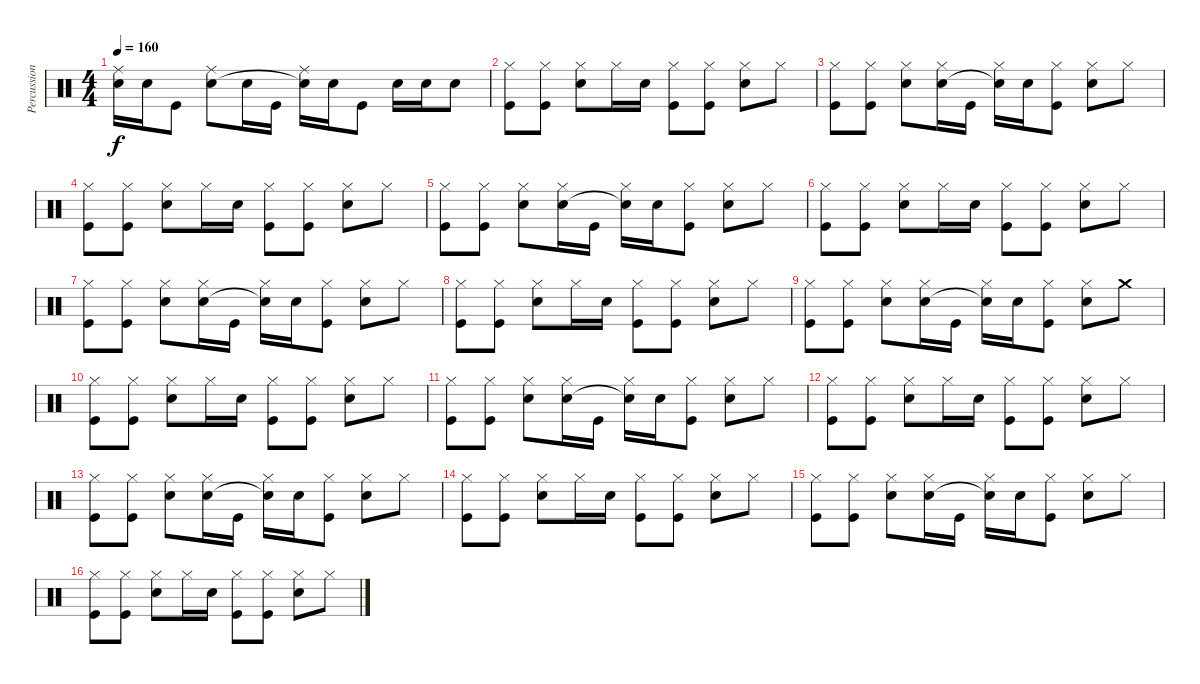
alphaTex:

\track ("Percussion" "Percussion") {instrument percussion}
\staff {score}
\articulation defaults
\ts (4 4)
\tempo 160
\clef neutral
\ks c
("Ride (middle)" "Snare (hit)"{t}).16{dy f} "Snare (hit) 2".16 "Kick (hit)".8 ("Ride (middle)" "Snare (hit) 2").8 "Snare (hit) 2".16 "Kick (hit)".16 ("Ride (middle)" "Snare (hit)"{t}).16 "Snare (hit) 2".16 "Kick (hit)".8 "Snare (hit) 2".16 "Snare (hit) 2".16 "Snare (hit) 2".8 |
("Hi-Hat (closed)" "Kick (hit)").8 ("Hi-Hat (closed)" "Kick (hit)").8 ("Hi-Hat (closed)" "Snare (hit) 2").8 "Hi-Hat (closed)".16 "Snare (hit) 2".16 ("Hi-Hat (closed)" "Kick (hit)").8 ("Hi-Hat (closed)" "Kick (hit)").8 ("Hi-Hat (closed)" "Snare (hit) 2").8 "Hi-Hat (closed)".8 |
("Hi-Hat (closed)" "Kick (hit)").8 ("Hi-Hat (closed)" "Kick (hit)").8 ("Hi-Hat (closed)" "Snare (hit) 2").8 ("Hi-Hat (closed)" "Snare (hit) 2").16 "Kick (hit)".16 ("Hi-Hat (closed)" "Snare (hit)"{t}).16 "Snare (hit) 2".16 ("Hi-Hat (closed)" "Kick (hit)").8 ("Hi-Hat (closed)" "Snare (hit) 2").8 "Hi-Hat (closed)".8 |
("Hi-Hat (closed)" "Kick (hit)").8 ("Hi-Hat (closed)" "Kick (hit)").8 ("Hi-Hat (closed)" "Snare (hit) 2").8 "Hi-Hat (closed)".16 "Snare (hit) 2".16 ("Hi-Hat (closed)" "Kick (hit)").8 ("Hi-Hat (closed)" "Kick (hit)").8 ("Hi-Hat (closed)" "Snare (hit) 2").8 "Hi-Hat (closed)".8 |
("Hi-Hat (closed)" "Kick (hit)").8 ("Hi-Hat (closed)" "Kick (hit)").8 ("Hi-Hat (closed)" "Snare (hit) 2").8 ("Hi-Hat (closed)" "Snare (hit) 2").16 "Kick (hit)".16 ("Hi-Hat (closed)" "Snare (hit)"{t}).16 "Snare (hit) 2".16 ("Hi-Hat (closed)" "Kick (hit)").8 ("Hi-Hat (closed)" "Snare (hit) 2").8 "Hi-Hat (closed)".8 |
("Hi-Hat (closed)" "Kick (hit)").8 ("Hi-Hat (closed)" "Kick (hit)").8 ("Hi-Hat (closed)" "Snare (hit) 2").8 "Hi-Hat (closed)".16 "Snare (hit) 2".16 ("Hi-Hat (closed)" "Kick (hit)").8 ("Hi-Hat (closed)" "Kick (hit)").8 ("Hi-Hat (closed)" "Snare (hit) 2").8 "Hi-Hat (closed)".8 |
("Hi-Hat (closed)" "Kick (hit)").8 ("Hi-Hat (closed)" "Kick (hit)").8 ("Hi-Hat (closed)" "Snare (hit) 2").8 ("Hi-Hat (closed)" "Snare (hit) 2").16 "Kick (hit)".16 ("Hi-Hat (closed)" "Snare (hit)"{t}).16 "Snare (hit) 2".16 ("Hi-Hat (closed)" "Kick (hit)").8 ("Hi-Hat (closed)" "Snare (hit) 2").8 "Hi-Hat (closed)".8 |
("Hi-Hat (closed)" "Kick (hit)").8 ("Hi-Hat (closed)" "Kick (hit)").8 ("Hi-Hat (closed)" "Snare (hit) 2").8 "Hi-Hat (closed)".16 "Snare (hit) 2".16 ("Hi-Hat (closed)" "Kick (hit)").8 ("Hi-Hat (closed)" "Kick (hit)").8 ("Hi-Hat (closed)" "Snare (hit) 2").8 "Hi-Hat (closed)".8 |
("Hi-Hat (closed)" "Kick (hit)").8 ("Hi-Hat (closed)" "Kick (hit)").8 ("Hi-Hat (closed)" "Snare (hit) 2").8 ("Hi-Hat (closed)" "Snare (hit) 2").16 "Kick (hit)".16 ("Hi-Hat (closed)" "Snare (hit)"{t}).16 "Snare (hit) 2".16 ("Hi-Hat (closed)" "Kick (hit)").8 ("Hi-Hat (closed)" "Snare (hit) 2").8 "Crash medium (hit)".8 |
("Hi-Hat (closed)" "Kick (hit)").8 ("Hi-Hat (closed)" "Kick (hit)").8 ("Hi-Hat (closed)" "Snare (hit) 2").8 "Hi-Hat (closed)".16 "Snare (hit) 2".16 ("Hi-Hat (closed)" "Kick (hit)").8 ("Hi-Hat (closed)" "Kick (hit)").8 ("Hi-Hat (closed)" "Snare (hit) 2").8 "Hi-Hat (closed)".8 |
("Hi-Hat (closed)" "Kick (hit)").8 ("Hi-Hat (closed)" "Kick (hit)").8 ("Hi-Hat (closed)" "Snare (hit) 2").8 ("Hi-Hat (closed)" "Snare (hit) 2").16 "Kick (hit)".16 ("Hi-Hat (closed)" "Snare (hit)"{t}).16 "Snare (hit) 2".16 ("Hi-Hat (closed)" "Kick (hit)").8 ("Hi-Hat (closed)" "Snare (hit) 2").8 "Hi-Hat (closed)".8 |
("Hi-Hat (closed)" "Kick (hit)").8 ("Hi-Hat (closed)" "Kick (hit)").8 ("Hi-Hat (closed)" "Snare (hit) 2").8 "Hi-Hat (closed)".16 "Snare (hit) 2".16 ("Hi-Hat (closed)" "Kick (hit)").8 ("Hi-Hat (closed)" "Kick (hit)").8 ("Hi-Hat (closed)" "Snare (hit) 2").8 "Hi-Hat (closed)".8 |
("Hi-Hat (closed)" "Kick (hit)").8 ("Hi-Hat (closed)" "Kick (hit)").8 ("Hi-Hat (closed)" "Snare (hit) 2").8 ("Hi-Hat (closed)" "Snare (hit) 2").16 "Kick (hit)".16 ("Hi-Hat (closed)" "Snare (hit)"{t}).16 "Snare (hit) 2".16 ("Hi-Hat (closed)" "Kick (hit)").8 ("Hi-Hat (closed)" "Snare (hit) 2").8 "Hi-Hat (closed)".8 |
("Hi-Hat (closed)" "Kick (hit)").8 ("Hi-Hat (closed)" "Kick (hit)").8 ("Hi-Hat (closed)" "Snare (hit) 2").8 "Hi-Hat (closed)".16 "Snare (hit) 2".16 ("Hi-Hat (closed)" "Kick (hit)").8 ("Hi-Hat (closed)" "Kick (hit)").8 ("Hi-Hat (closed)" "Snare (hit) 2").8 "Hi-Hat (closed)".8 |
("Hi-Hat (closed)" "Kick (hit)").8 ("Hi-Hat (closed)" "Kick (hit)").8 ("Hi-Hat (closed)" "Snare (hit) 2").8 ("Hi-Hat (closed)" "Snare (hit) 2").16 "Kick (hit)".16 ("Hi-Hat (closed)" "Snare (hit)"{t}).16 "Snare (hit) 2".16 ("Hi-Hat (closed)" "Kick (hit)").8 ("Hi-Hat (closed)" "Snare (hit) 2").8 "Hi-Hat (closed)".8 |
("Hi-Hat (closed)" "Kick (hit)").8 ("Hi-Hat (closed)" "Kick (hit)").8 ("Hi-Hat (closed)" "Snare (hit) 2").8 "Hi-Hat (closed)".16 "Snare (hit) 2".16 ("Hi-Hat (closed)" "Kick (hit)").8 ("Hi-Hat (closed)" "Kick (hit)").8 ("Hi-Hat (closed)" "Snare (hit) 2").8 "Hi-Hat (closed)".8
